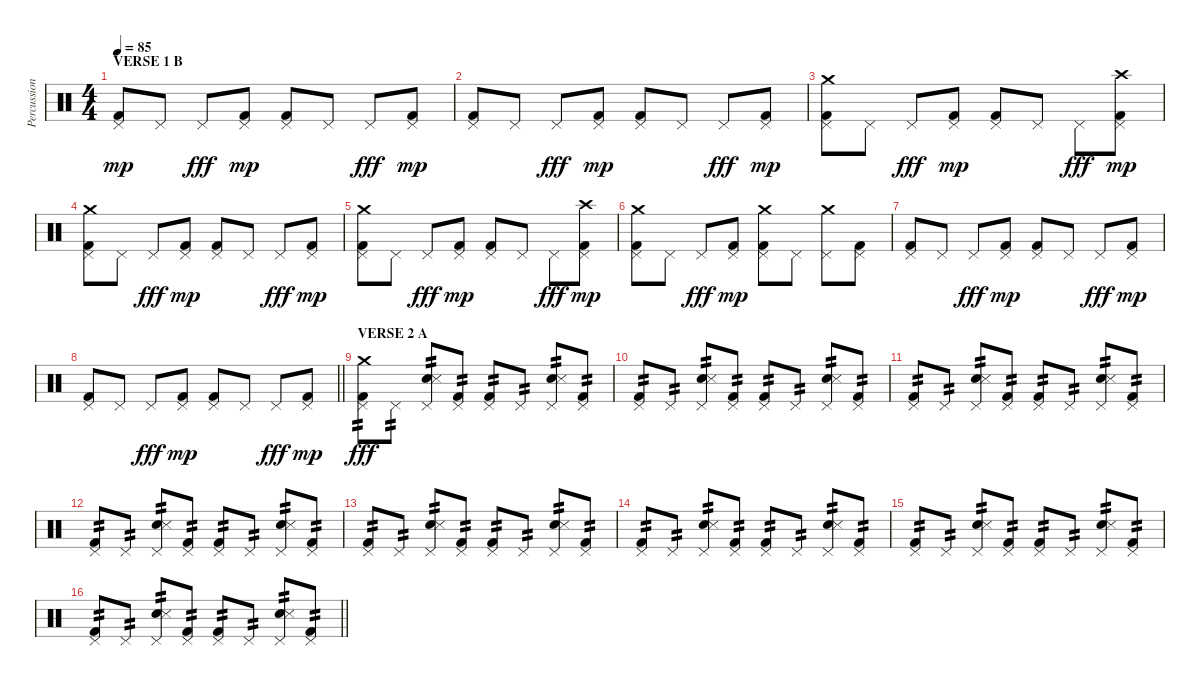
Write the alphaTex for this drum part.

\track ("Percussion" "Percussion") {instrument percussion}
\staff {score}
\articulation defaults
\ts (4 4)
\section ("" "VERSE 1 B")
\tempo 85
\clef neutral
\ks c
("Pedal Hi-Hat (hit)" "Kick (hit) 2").8{dy mp} "Pedal Hi-Hat (hit)".8 "Pedal Hi-Hat (hit)".8{dy fff} ("Pedal Hi-Hat (hit)" "Kick (hit) 2").8{dy mp} ("Pedal Hi-Hat (hit)" "Kick (hit) 2").8 "Pedal Hi-Hat (hit)".8 "Pedal Hi-Hat (hit)".8{dy fff} ("Pedal Hi-Hat (hit)" "Kick (hit) 2").8{dy mp} |
("Pedal Hi-Hat (hit)" "Kick (hit) 2").8 "Pedal Hi-Hat (hit)".8 "Pedal Hi-Hat (hit)".8{dy fff} ("Pedal Hi-Hat (hit)" "Kick (hit) 2").8{dy mp} ("Pedal Hi-Hat (hit)" "Kick (hit) 2").8 "Pedal Hi-Hat (hit)".8 "Pedal Hi-Hat (hit)".8{dy fff} ("Pedal Hi-Hat (hit)" "Kick (hit) 2").8{dy mp} |
("Pedal Hi-Hat (hit)" "Crash medium (hit)" "Kick (hit) 2").8 "Pedal Hi-Hat (hit)".8 "Pedal Hi-Hat (hit)".8{dy fff} ("Pedal Hi-Hat (hit)" "Kick (hit) 2").8{dy mp} ("Pedal Hi-Hat (hit)" "Kick (hit) 2").8 "Pedal Hi-Hat (hit)".8 "Pedal Hi-Hat (hit)".8{dy fff} ("Pedal Hi-Hat (hit)" "Crash high (hit)" "Kick (hit) 2").8{dy mp} |
("Pedal Hi-Hat (hit)" "Crash medium (hit)" "Kick (hit) 2").8 "Pedal Hi-Hat (hit)".8 "Pedal Hi-Hat (hit)".8{dy fff} ("Pedal Hi-Hat (hit)" "Kick (hit) 2").8{dy mp} ("Pedal Hi-Hat (hit)" "Kick (hit) 2").8 "Pedal Hi-Hat (hit)".8 "Pedal Hi-Hat (hit)".8{dy fff} ("Pedal Hi-Hat (hit)" "Kick (hit) 2").8{dy mp} |
("Pedal Hi-Hat (hit)" "Crash medium (hit)" "Kick (hit) 2").8 "Pedal Hi-Hat (hit)".8 "Pedal Hi-Hat (hit)".8{dy fff} ("Pedal Hi-Hat (hit)" "Kick (hit) 2").8{dy mp} ("Pedal Hi-Hat (hit)" "Kick (hit) 2").8 "Pedal Hi-Hat (hit)".8 "Pedal Hi-Hat (hit)".8{dy fff} ("Pedal Hi-Hat (hit)" "Crash high (hit)" "Kick (hit) 2").8{dy mp} |
("Pedal Hi-Hat (hit)" "Crash medium (hit)" "Kick (hit) 2").8 "Pedal Hi-Hat (hit)".8 "Pedal Hi-Hat (hit)".8{dy fff} ("Pedal Hi-Hat (hit)" "Kick (hit) 2").8{dy mp} ("Pedal Hi-Hat (hit)" "Crash medium (hit)" "Kick (hit) 2").8 "Pedal Hi-Hat (hit)".8 ("Pedal Hi-Hat (hit)" "Crash medium (hit)").8 ("Pedal Hi-Hat (hit)" "Kick (hit) 2").8 |
("Pedal Hi-Hat (hit)" "Kick (hit) 2").8 "Pedal Hi-Hat (hit)".8 "Pedal Hi-Hat (hit)".8{dy fff} ("Pedal Hi-Hat (hit)" "Kick (hit) 2").8{dy mp} ("Pedal Hi-Hat (hit)" "Kick (hit) 2").8 "Pedal Hi-Hat (hit)".8 "Pedal Hi-Hat (hit)".8{dy fff} ("Pedal Hi-Hat (hit)" "Kick (hit) 2").8{dy mp} |
\barLineRight lightlight
("Pedal Hi-Hat (hit)" "Kick (hit) 2").8 "Pedal Hi-Hat (hit)".8 "Pedal Hi-Hat (hit)".8{dy fff} ("Pedal Hi-Hat (hit)" "Kick (hit) 2").8{dy mp} ("Pedal Hi-Hat (hit)" "Kick (hit) 2").8 "Pedal Hi-Hat (hit)".8 "Pedal Hi-Hat (hit)".8{dy fff} ("Pedal Hi-Hat (hit)" "Kick (hit) 2").8{dy mp} |
\section ("" "VERSE 2 A")
("Pedal Hi-Hat (hit)" "Crash medium (hit)" "Kick (hit) 2").8{tp 2 dy fff} "Pedal Hi-Hat (hit)".8{tp 2} ("Pedal Hi-Hat (hit)" "Electric Snare (hit)" "Snare (side stick) 3").8{tp 2} ("Pedal Hi-Hat (hit)" "Kick (hit) 2").8{tp 2} ("Pedal Hi-Hat (hit)" "Kick (hit) 2").8{tp 2} "Pedal Hi-Hat (hit)".8{tp 2} ("Pedal Hi-Hat (hit)" "Electric Snare (hit)" "Snare (side stick) 3").8{tp 2} ("Pedal Hi-Hat (hit)" "Kick (hit) 2").8{tp 2} |
("Pedal Hi-Hat (hit)" "Kick (hit) 2").8{tp 2} "Pedal Hi-Hat (hit)".8{tp 2} ("Pedal Hi-Hat (hit)" "Electric Snare (hit)" "Snare (side stick) 3").8{tp 2} ("Pedal Hi-Hat (hit)" "Kick (hit) 2").8{tp 2} ("Pedal Hi-Hat (hit)" "Kick (hit) 2").8{tp 2} "Pedal Hi-Hat (hit)".8{tp 2} ("Pedal Hi-Hat (hit)" "Electric Snare (hit)" "Snare (side stick) 3").8{tp 2} ("Pedal Hi-Hat (hit)" "Kick (hit) 2").8{tp 2} |
("Pedal Hi-Hat (hit)" "Kick (hit) 2").8{tp 2} "Pedal Hi-Hat (hit)".8{tp 2} ("Pedal Hi-Hat (hit)" "Electric Snare (hit)" "Snare (side stick) 3").8{tp 2} ("Pedal Hi-Hat (hit)" "Kick (hit) 2").8{tp 2} ("Pedal Hi-Hat (hit)" "Kick (hit) 2").8{tp 2} "Pedal Hi-Hat (hit)".8{tp 2} ("Pedal Hi-Hat (hit)" "Electric Snare (hit)" "Snare (side stick) 3").8{tp 2} ("Pedal Hi-Hat (hit)" "Kick (hit) 2").8{tp 2} |
("Pedal Hi-Hat (hit)" "Kick (hit) 2").8{tp 2} "Pedal Hi-Hat (hit)".8{tp 2} ("Pedal Hi-Hat (hit)" "Electric Snare (hit)" "Snare (side stick) 3").8{tp 2} ("Pedal Hi-Hat (hit)" "Kick (hit) 2").8{tp 2} ("Pedal Hi-Hat (hit)" "Kick (hit) 2").8{tp 2} "Pedal Hi-Hat (hit)".8{tp 2} ("Pedal Hi-Hat (hit)" "Electric Snare (hit)" "Snare (side stick) 3").8{tp 2} ("Pedal Hi-Hat (hit)" "Kick (hit) 2").8{tp 2} |
("Pedal Hi-Hat (hit)" "Kick (hit) 2").8{tp 2} "Pedal Hi-Hat (hit)".8{tp 2} ("Pedal Hi-Hat (hit)" "Electric Snare (hit)" "Snare (side stick) 3").8{tp 2} ("Pedal Hi-Hat (hit)" "Kick (hit) 2").8{tp 2} ("Pedal Hi-Hat (hit)" "Kick (hit) 2").8{tp 2} "Pedal Hi-Hat (hit)".8{tp 2} ("Pedal Hi-Hat (hit)" "Electric Snare (hit)" "Snare (side stick) 3").8{tp 2} ("Pedal Hi-Hat (hit)" "Kick (hit) 2").8{tp 2} |
("Pedal Hi-Hat (hit)" "Kick (hit) 2").8{tp 2} "Pedal Hi-Hat (hit)".8{tp 2} ("Pedal Hi-Hat (hit)" "Electric Snare (hit)" "Snare (side stick) 3").8{tp 2} ("Pedal Hi-Hat (hit)" "Kick (hit) 2").8{tp 2} ("Pedal Hi-Hat (hit)" "Kick (hit) 2").8{tp 2} "Pedal Hi-Hat (hit)".8{tp 2} ("Pedal Hi-Hat (hit)" "Electric Snare (hit)" "Snare (side stick) 3").8{tp 2} ("Pedal Hi-Hat (hit)" "Kick (hit) 2").8{tp 2} |
("Pedal Hi-Hat (hit)" "Kick (hit) 2").8{tp 2} "Pedal Hi-Hat (hit)".8{tp 2} ("Pedal Hi-Hat (hit)" "Electric Snare (hit)" "Snare (side stick) 3").8{tp 2} ("Pedal Hi-Hat (hit)" "Kick (hit) 2").8{tp 2} ("Pedal Hi-Hat (hit)" "Kick (hit) 2").8{tp 2} "Pedal Hi-Hat (hit)".8{tp 2} ("Pedal Hi-Hat (hit)" "Electric Snare (hit)" "Snare (side stick) 3").8{tp 2} ("Pedal Hi-Hat (hit)" "Kick (hit) 2").8{tp 2} |
\barLineRight lightlight
("Pedal Hi-Hat (hit)" "Kick (hit) 2").8{tp 2} "Pedal Hi-Hat (hit)".8{tp 2} ("Pedal Hi-Hat (hit)" "Electric Snare (hit)" "Snare (side stick) 3").8{tp 2} ("Pedal Hi-Hat (hit)" "Kick (hit) 2").8{tp 2} ("Pedal Hi-Hat (hit)" "Kick (hit) 2").8{tp 2} "Pedal Hi-Hat (hit)".8{tp 2} ("Pedal Hi-Hat (hit)" "Electric Snare (hit)" "Snare (side stick) 3").8{tp 2} ("Pedal Hi-Hat (hit)" "Kick (hit) 2").8{tp 2}
